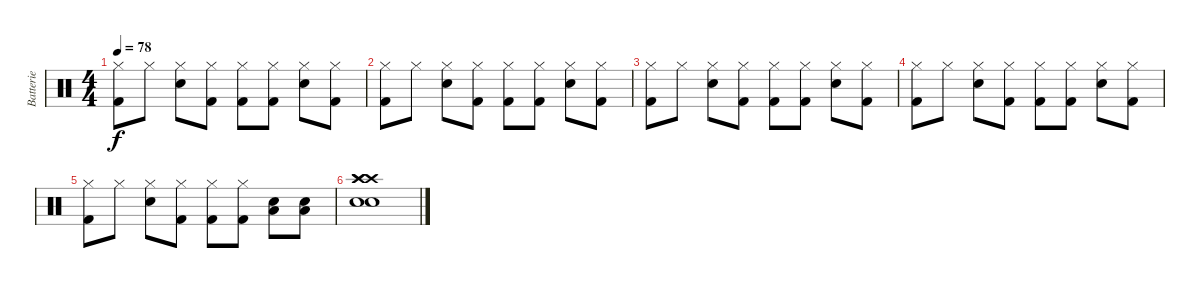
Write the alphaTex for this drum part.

\track ("Batterie" "Batterie") {instrument percussion}
\staff {score}
\articulation defaults
\ts (4 4)
\tempo 78
\clef neutral
\ks c
("Hi-Hat (closed)" "Kick (hit) 2").8{dy f} "Hi-Hat (closed)".8 ("Hi-Hat (closed)" "Electric Snare (hit)").8 ("Hi-Hat (closed)" "Kick (hit) 2").8 ("Hi-Hat (closed)" "Kick (hit) 2").8 ("Hi-Hat (closed)" "Kick (hit) 2").8 ("Hi-Hat (closed)" "Electric Snare (hit)").8 ("Hi-Hat (closed)" "Kick (hit) 2").8 |
("Hi-Hat (closed)" "Kick (hit) 2").8 "Hi-Hat (closed)".8 ("Hi-Hat (closed)" "Electric Snare (hit)").8 ("Hi-Hat (closed)" "Kick (hit) 2").8 ("Hi-Hat (closed)" "Kick (hit) 2").8 ("Hi-Hat (closed)" "Kick (hit) 2").8 ("Hi-Hat (closed)" "Electric Snare (hit)").8 ("Hi-Hat (closed)" "Kick (hit) 2").8 |
("Hi-Hat (closed)" "Kick (hit) 2").8 "Hi-Hat (closed)".8 ("Hi-Hat (closed)" "Electric Snare (hit)").8 ("Hi-Hat (closed)" "Kick (hit) 2").8 ("Hi-Hat (closed)" "Kick (hit) 2").8 ("Hi-Hat (closed)" "Kick (hit) 2").8 ("Hi-Hat (closed)" "Electric Snare (hit)").8 ("Hi-Hat (closed)" "Kick (hit) 2").8 |
("Hi-Hat (closed)" "Kick (hit) 2").8 "Hi-Hat (closed)".8 ("Hi-Hat (closed)" "Electric Snare (hit)").8 ("Hi-Hat (closed)" "Kick (hit) 2").8 ("Hi-Hat (closed)" "Kick (hit) 2").8 ("Hi-Hat (closed)" "Kick (hit) 2").8 ("Hi-Hat (closed)" "Electric Snare (hit)").8 ("Hi-Hat (closed)" "Kick (hit) 2").8 |
("Hi-Hat (closed)" "Kick (hit) 2").8 "Hi-Hat (closed)".8 ("Hi-Hat (closed)" "Electric Snare (hit)").8 ("Hi-Hat (closed)" "Kick (hit) 2").8 ("Hi-Hat (closed)" "Kick (hit) 2").8 ("Hi-Hat (closed)" "Kick (hit) 2").8 ("Low Floor Tom (hit)" "Electric Snare (hit)").8 ("Low Floor Tom (hit)" "Electric Snare (hit)").8 |
("Crash high (hit)" "Crash high (hit)" "Crash high (hit)" "Electric Snare (hit)" "Electric Snare (hit)").1
